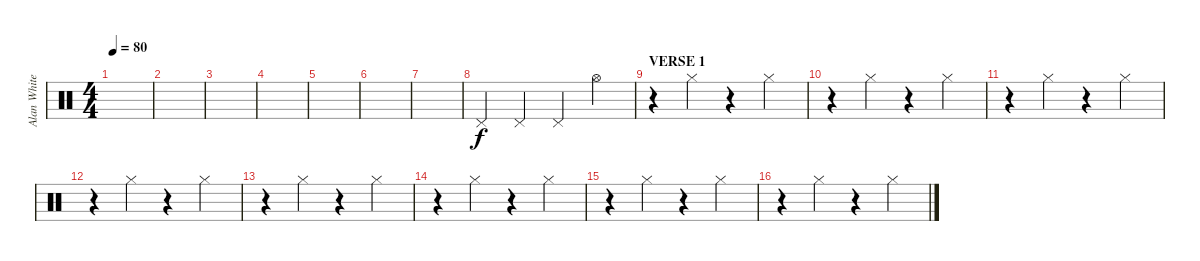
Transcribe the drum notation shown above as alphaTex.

\track ("Alan White" "Alan White") {instrument percussion}
\staff {score}
\articulation defaults
\ts (4 4)
\tempo 80
\clef neutral
\ks c
|
|
|
|
|
|
|
"Pedal Hi-Hat (hit)".4 "Pedal Hi-Hat (hit)".4 "Pedal Hi-Hat (hit)".4 "Hi-Hat (open)".4 |
\section ("" "VERSE 1")
r.4 "Hi-Hat (closed)".4 r.4 "Hi-Hat (closed)".4 |
r.4 "Hi-Hat (closed)".4 r.4 "Hi-Hat (closed)".4 |
r.4 "Hi-Hat (closed)".4 r.4 "Hi-Hat (closed)".4 |
r.4 "Hi-Hat (closed)".4 r.4 "Hi-Hat (closed)".4 |
r.4 "Hi-Hat (closed)".4 r.4 "Hi-Hat (closed)".4 |
r.4 "Hi-Hat (closed)".4 r.4 "Hi-Hat (closed)".4 |
r.4 "Hi-Hat (closed)".4 r.4 "Hi-Hat (closed)".4 |
r.4 "Hi-Hat (closed)".4 r.4 "Hi-Hat (closed)".4
